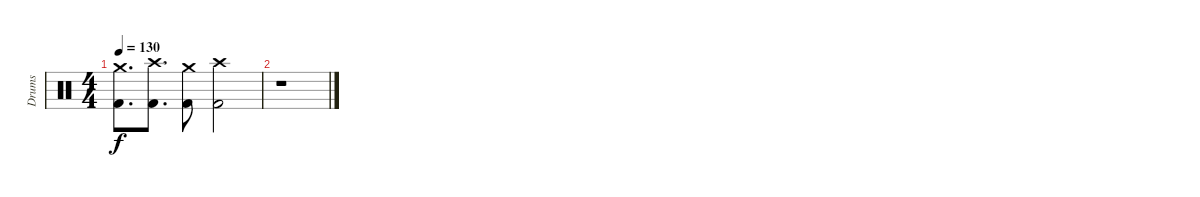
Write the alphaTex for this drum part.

\track ("Drums" "Drums") {instrument percussion}
\staff {score}
\articulation defaults
\ts (4 4)
\tempo 130
\clef neutral
\ks c
("Kick (hit) 2" "Crash medium (hit)").8{d dy f} ("Kick (hit) 2" "Crash high (hit)").8{d} ("Kick (hit) 2" "Crash medium (hit)").8 ("Kick (hit) 2" "Crash high (hit)").2 |
r.1
